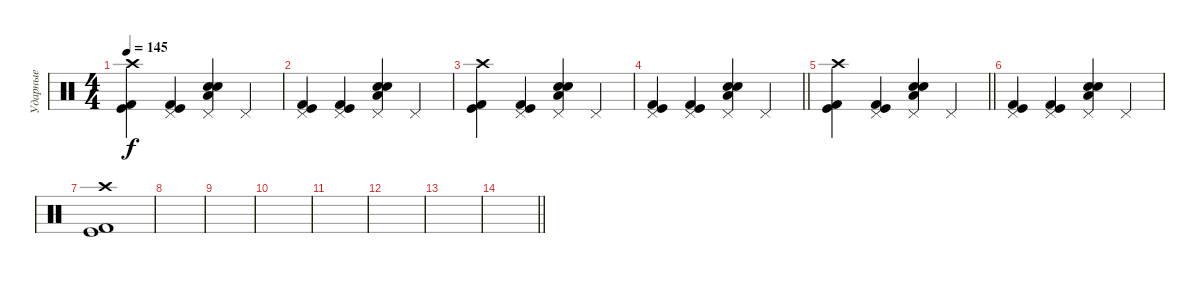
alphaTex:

\track ("Ударные" "Ударные") {instrument percussion}
\staff {score}
\articulation defaults
\ts (4 4)
\tempo 145
\clef neutral
\ks c
("Crash high (hit)" "Kick (hit) 2" "Kick (hit)").4{dy f} ("Pedal Hi-Hat (hit)" "Kick (hit) 2" "Kick (hit)").4 ("Pedal Hi-Hat (hit)" "Snare (hit) 2" "Electric Snare (hit)" "Low Floor Tom (hit)").4 "Pedal Hi-Hat (hit)".4 |
("Pedal Hi-Hat (hit)" "Kick (hit) 2" "Kick (hit)").4 ("Pedal Hi-Hat (hit)" "Kick (hit) 2" "Kick (hit)").4 ("Pedal Hi-Hat (hit)" "Snare (hit) 2" "Electric Snare (hit)" "Low Floor Tom (hit)").4 "Pedal Hi-Hat (hit)".4 |
("Crash high (hit)" "Kick (hit) 2" "Kick (hit)").4 ("Pedal Hi-Hat (hit)" "Kick (hit) 2" "Kick (hit)").4 ("Pedal Hi-Hat (hit)" "Snare (hit) 2" "Electric Snare (hit)" "Low Floor Tom (hit)").4 "Pedal Hi-Hat (hit)".4 |
\barLineRight lightlight
("Pedal Hi-Hat (hit)" "Kick (hit) 2" "Kick (hit)").4 ("Pedal Hi-Hat (hit)" "Kick (hit) 2" "Kick (hit)").4 ("Pedal Hi-Hat (hit)" "Snare (hit) 2" "Electric Snare (hit)" "Low Floor Tom (hit)").4 "Pedal Hi-Hat (hit)".4 |
\barLineRight lightlight
("Crash high (hit)" "Kick (hit) 2" "Kick (hit)").4 ("Pedal Hi-Hat (hit)" "Kick (hit) 2" "Kick (hit)").4 ("Pedal Hi-Hat (hit)" "Snare (hit) 2" "Electric Snare (hit)" "Low Floor Tom (hit)").4 "Pedal Hi-Hat (hit)".4 |
("Pedal Hi-Hat (hit)" "Kick (hit) 2" "Kick (hit)").4 ("Pedal Hi-Hat (hit)" "Kick (hit) 2" "Kick (hit)").4 ("Pedal Hi-Hat (hit)" "Snare (hit) 2" "Electric Snare (hit)" "Low Floor Tom (hit)").4 "Pedal Hi-Hat (hit)".4 |
("Crash high (hit)" "Kick (hit) 2" "Kick (hit)").1 |
|
|
|
|
|
|
\barLineRight lightlight
